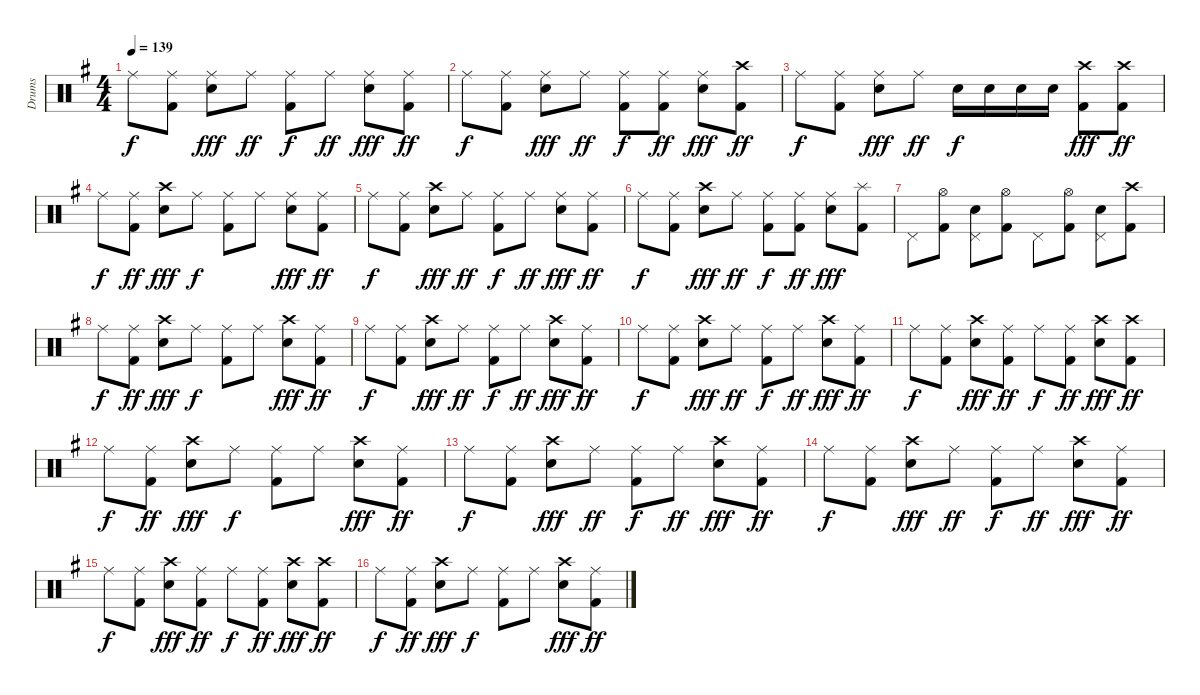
\track ("Drums" "Drums") {instrument percussion}
\staff {score}
\articulation defaults
\ts (4 4)
\tempo 139
\clef neutral
\ks g "Ride (middle)".8{dy f}
("Ride (middle)" "Kick (hit) 2").8 ("Ride (middle)" "Snare (hit) 2").8{dy fff} "Ride (middle)".8{dy ff} ("Ride (middle)" "Kick (hit) 2").8{dy f} "Ride (middle)".8{dy ff} ("Ride (middle)" "Snare (hit) 2").8{dy fff} ("Ride (middle)" "Kick (hit) 2").8{dy ff} |
"Ride (middle)".8{dy f} ("Ride (middle)" "Kick (hit) 2").8 ("Ride (middle)" "Snare (hit) 2").8{dy fff} "Ride (middle)".8{dy ff} ("Ride (middle)" "Kick (hit) 2").8{dy f} ("Ride (middle)" "Kick (hit) 2").8{dy ff} ("Ride (middle)" "Snare (hit) 2").8{dy fff} ("Crash high (hit)" "Kick (hit) 2").8{dy ff} |
"Ride (middle)".8{dy f} ("Ride (middle)" "Kick (hit) 2").8 ("Ride (middle)" "Snare (hit) 2").8{dy fff} "Ride (middle)".8{dy ff} "Snare (hit) 2".16{dy f} "Snare (hit) 2".16 "Snare (hit) 2".16 "Snare (hit) 2".16 ("Crash high (hit)" "Kick (hit) 2").8{dy fff} ("Crash high (hit)" "Kick (hit) 2").8{dy ff} |
"Ride (middle)".8{dy f} ("Ride (middle)" "Kick (hit) 2").8{dy ff} ("Crash high (hit)" "Snare (hit) 2").8{dy fff} "Ride (middle)".8{dy f} ("Ride (middle)" "Kick (hit) 2").8 "Ride (middle)".8 ("Ride (middle)" "Snare (hit) 2").8{dy fff} ("Ride (middle)" "Kick (hit) 2").8{dy ff} |
"Ride (middle)".8{dy f} ("Ride (middle)" "Kick (hit) 2").8 ("Crash high (hit)" "Snare (hit) 2").8{dy fff} "Ride (middle)".8{dy ff} ("Ride (middle)" "Kick (hit) 2").8{dy f} "Ride (middle)".8{dy ff} ("Ride (middle)" "Snare (hit) 2").8{dy fff} ("Ride (middle)" "Kick (hit) 2").8{dy ff} |
"Ride (middle)".8{dy f} ("Ride (middle)" "Kick (hit) 2").8 ("Crash high (hit)" "Snare (hit) 2").8{dy fff} "Ride (middle)".8{dy ff} ("Ride (middle)" "Kick (hit) 2").8{dy f} ("Ride (middle)" "Kick (hit) 2").8{dy ff} ("Ride (middle)" "Snare (hit) 2").8{dy fff} ("Splash (hit)" "Kick (hit) 2").8 |
"Pedal Hi-Hat (hit)".8 ("Hi-Hat (open)" "Kick (hit) 2").8 ("Pedal Hi-Hat (hit)" "Snare (hit) 2").8 ("Hi-Hat (open)" "Kick (hit) 2").8 "Pedal Hi-Hat (hit)".8 ("Hi-Hat (open)" "Kick (hit) 2").8 ("Pedal Hi-Hat (hit)" "Snare (hit) 2").8 ("Crash high (hit)" "Kick (hit) 2").8 |
"Ride (middle)".8{dy f} ("Ride (middle)" "Kick (hit) 2").8{dy ff} ("Crash high (hit)" "Snare (hit) 2").8{dy fff} "Ride (middle)".8{dy f} ("Ride (middle)" "Kick (hit) 2").8 "Ride (middle)".8 ("Crash high (hit)" "Snare (hit) 2").8{dy fff} ("Ride (middle)" "Kick (hit) 2").8{dy ff} |
"Ride (middle)".8{dy f} ("Ride (middle)" "Kick (hit) 2").8 ("Crash high (hit)" "Snare (hit) 2").8{dy fff} "Ride (middle)".8{dy ff} ("Ride (middle)" "Kick (hit) 2").8{dy f} "Ride (middle)".8{dy ff} ("Crash high (hit)" "Snare (hit) 2").8{dy fff} ("Ride (middle)" "Kick (hit) 2").8{dy ff} |
"Ride (middle)".8{dy f} ("Ride (middle)" "Kick (hit) 2").8 ("Crash high (hit)" "Snare (hit) 2").8{dy fff} "Ride (middle)".8{dy ff} ("Ride (middle)" "Kick (hit) 2").8{dy f} "Ride (middle)".8{dy ff} ("Crash high (hit)" "Snare (hit) 2").8{dy fff} ("Ride (middle)" "Kick (hit) 2").8{dy ff} |
"Ride (middle)".8{dy f} ("Ride (middle)" "Kick (hit) 2").8 ("Crash high (hit)" "Snare (hit) 2").8{dy fff} ("Ride (middle)" "Kick (hit) 2").8{dy ff} "Ride (middle)".8{dy f} ("Ride (middle)" "Kick (hit) 2").8{dy ff} ("Crash high (hit)" "Snare (hit) 2").8{dy fff} ("Crash high (hit)" "Kick (hit) 2").8{dy ff} |
"Ride (middle)".8{dy f} ("Ride (middle)" "Kick (hit) 2").8{dy ff} ("Crash high (hit)" "Snare (hit) 2").8{dy fff} "Ride (middle)".8{dy f} ("Ride (middle)" "Kick (hit) 2").8 "Ride (middle)".8 ("Crash high (hit)" "Snare (hit) 2").8{dy fff} ("Ride (middle)" "Kick (hit) 2").8{dy ff} |
"Ride (middle)".8{dy f} ("Ride (middle)" "Kick (hit) 2").8 ("Crash high (hit)" "Snare (hit) 2").8{dy fff} "Ride (middle)".8{dy ff} ("Ride (middle)" "Kick (hit) 2").8{dy f} "Ride (middle)".8{dy ff} ("Crash high (hit)" "Snare (hit) 2").8{dy fff} ("Ride (middle)" "Kick (hit) 2").8{dy ff} |
"Ride (middle)".8{dy f} ("Ride (middle)" "Kick (hit) 2").8 ("Crash high (hit)" "Snare (hit) 2").8{dy fff} "Ride (middle)".8{dy ff} ("Ride (middle)" "Kick (hit) 2").8{dy f} "Ride (middle)".8{dy ff} ("Crash high (hit)" "Snare (hit) 2").8{dy fff} ("Ride (middle)" "Kick (hit) 2").8{dy ff} |
"Ride (middle)".8{dy f} ("Ride (middle)" "Kick (hit) 2").8{volume 14} ("Crash high (hit)" "Snare (hit) 2").8{dy fff} ("Ride (middle)" "Kick (hit) 2").8{dy ff} "Ride (middle)".8{dy f} ("Ride (middle)" "Kick (hit) 2").8{dy ff} ("Crash high (hit)" "Snare (hit) 2").8{dy fff volume 14} ("Crash high (hit)" "Kick (hit) 2").8{dy ff} |
"Ride (middle)".8{dy f volume 13} ("Ride (middle)" "Kick (hit) 2").8{dy ff volume 13} ("Crash high (hit)" "Snare (hit) 2").8{dy fff} "Ride (middle)".8{dy f volume 13} ("Ride (middle)" "Kick (hit) 2").8{volume 13} "Ride (middle)".8{volume 13} ("Crash high (hit)" "Snare (hit) 2").8{dy fff volume 13} ("Ride (middle)" "Kick (hit) 2").8{dy ff volume 12}
